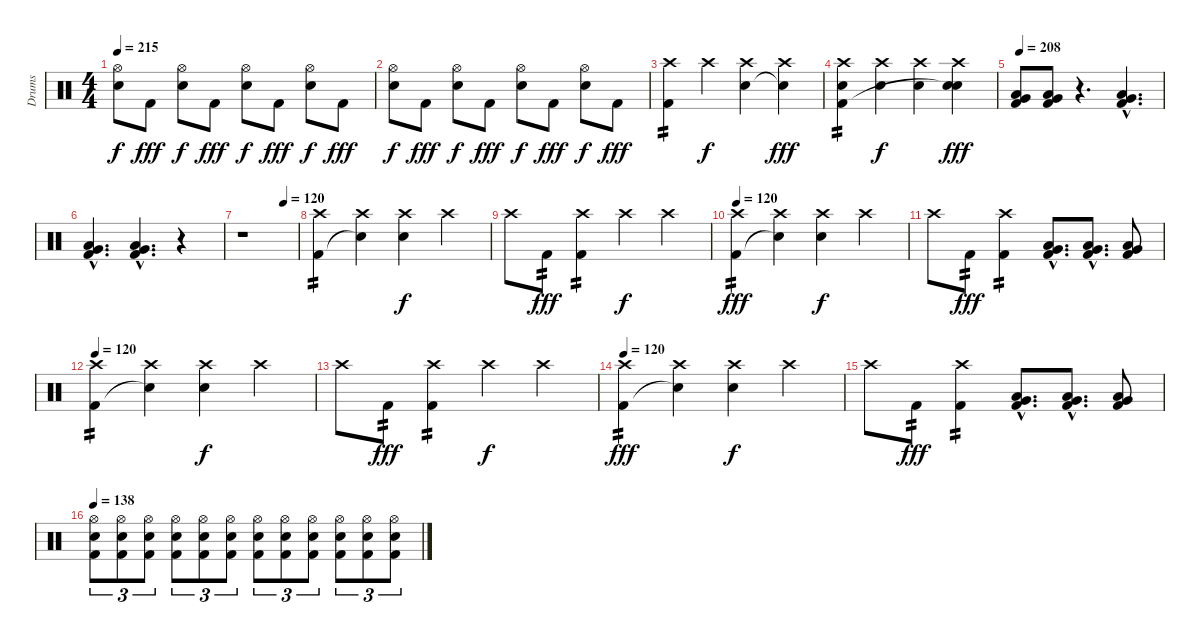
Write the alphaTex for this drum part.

\track ("Drums" "Drums") {instrument percussion}
\staff {score}
\articulation defaults
\ts (4 4)
\tempo 215
\clef neutral
\ks c
("Hi-Hat (open)" "Electric Snare (hit)").8{dy f} "Kick (hit) 2".8{dy fff} ("Hi-Hat (open)" "Electric Snare (hit)").8{dy f} "Kick (hit) 2".8{dy fff} ("Hi-Hat (open)" "Electric Snare (hit)").8{dy f} "Kick (hit) 2".8{dy fff} ("Hi-Hat (open)" "Electric Snare (hit)").8{dy f} "Kick (hit) 2".8{dy fff} |
("Hi-Hat (open)" "Electric Snare (hit)").8{dy f} "Kick (hit) 2".8{dy fff} ("Hi-Hat (open)" "Electric Snare (hit)").8{dy f} "Kick (hit) 2".8{dy fff} ("Hi-Hat (open)" "Electric Snare (hit)").8{dy f} "Kick (hit) 2".8{dy fff} ("Hi-Hat (open)" "Electric Snare (hit)").8{dy f} "Kick (hit) 2".8{dy fff} |
("Crash high (hit)" "Kick (hit) 2").4{tp 2} "Crash high (hit)".4{dy f} ("Crash high (hit)" "Electric Snare (hit)").4 ("Crash high (hit)" "Snare (hit)"{t}).4{dy fff} |
("Crash high (hit)" "Electric Snare (hit)" "Kick (hit) 2").4{tp 2} ("Crash high (hit)" "Electric Snare (hit)").4{dy f} ("Crash high (hit)" "Electric Snare (hit)").4 ("Crash high (hit)" "Electric Snare (hit)" "Snare (hit)"{t}).4{dy fff} |
\tempo 208
("Low Tom (hit)" "Very Low Tom (hit)" "Kick (hit) 2").8 ("Low Tom (hit)" "Very Low Tom (hit)" "Kick (hit) 2").8 r.4{d} ("Low Tom (hit)"{hac} "Very Low Tom (hit)"{hac} "Kick (hit) 2"{hac}).4{d} |
("Low Tom (hit)"{hac} "Very Low Tom (hit)"{hac} "Kick (hit) 2"{hac}).4{d} ("Low Tom (hit)"{hac} "Very Low Tom (hit)"{hac} "Kick (hit) 2"{hac}).4{d} r.4 |
\tempo (120 0.75)
r.1 |
("Crash high (hit)" "Kick (hit) 2").4{tp 2} ("Crash high (hit)" "Snare (hit)"{t}).4 ("Crash high (hit)" "Electric Snare (hit)").4{dy f} "Crash high (hit)".4 |
"Crash high (hit)".8 "Kick (hit) 2".8{tp 2 dy fff} ("Crash high (hit)" "Kick (hit) 2").4{tp 2} "Crash high (hit)".4{dy f} "Crash high (hit)".4 |
\tempo 120
("Crash high (hit)" "Kick (hit) 2").4{tp 2 dy fff} ("Crash high (hit)" "Snare (hit)"{t}).4 ("Crash high (hit)" "Electric Snare (hit)").4{dy f} "Crash high (hit)".4 |
"Crash high (hit)".8 "Kick (hit) 2".8{tp 2 dy fff} ("Crash high (hit)" "Kick (hit) 2").4{tp 2} ("Low Tom (hit)"{hac} "Very Low Tom (hit)"{hac} "Kick (hit) 2"{hac}).8{d} ("Low Tom (hit)"{hac} "Very Low Tom (hit)"{hac} "Kick (hit) 2"{hac}).8{d} ("Low Tom (hit)" "Very Low Tom (hit)" "Kick (hit) 2").8 |
\tempo 120
("Crash high (hit)" "Kick (hit) 2").4{tp 2} ("Crash high (hit)" "Snare (hit)"{t}).4 ("Crash high (hit)" "Electric Snare (hit)").4{dy f} "Crash high (hit)".4 |
"Crash high (hit)".8 "Kick (hit) 2".8{tp 2 dy fff} ("Crash high (hit)" "Kick (hit) 2").4{tp 2} "Crash high (hit)".4{dy f} "Crash high (hit)".4 |
\tempo 120
("Crash high (hit)" "Kick (hit) 2").4{tp 2 dy fff} ("Crash high (hit)" "Snare (hit)"{t}).4 ("Crash high (hit)" "Electric Snare (hit)").4{dy f} "Crash high (hit)".4 |
"Crash high (hit)".8 "Kick (hit) 2".8{tp 2 dy fff} ("Crash high (hit)" "Kick (hit) 2").4{tp 2} ("Low Tom (hit)"{hac} "Very Low Tom (hit)"{hac} "Kick (hit) 2"{hac}).8{d} ("Low Tom (hit)"{hac} "Very Low Tom (hit)"{hac} "Kick (hit) 2"{hac}).8{d} ("Low Tom (hit)" "Very Low Tom (hit)" "Kick (hit) 2").8 |
\tempo 138
("Hi-Hat (open)" "Electric Snare (hit)" "Kick (hit) 2").8{tu (3 2)} ("Hi-Hat (open)" "Electric Snare (hit)" "Kick (hit) 2").8{tu (3 2)} ("Hi-Hat (open)" "Electric Snare (hit)" "Kick (hit) 2").8{tu (3 2)} ("Hi-Hat (open)" "Electric Snare (hit)" "Kick (hit) 2").8{tu (3 2)} ("Hi-Hat (open)" "Electric Snare (hit)" "Kick (hit) 2").8{tu (3 2)} ("Hi-Hat (open)" "Electric Snare (hit)" "Kick (hit) 2").8{tu (3 2)} ("Hi-Hat (open)" "Electric Snare (hit)" "Kick (hit) 2").8{tu (3 2)} ("Hi-Hat (open)" "Electric Snare (hit)" "Kick (hit) 2").8{tu (3 2)} ("Hi-Hat (open)" "Electric Snare (hit)" "Kick (hit) 2").8{tu (3 2)} ("Hi-Hat (open)" "Electric Snare (hit)" "Kick (hit) 2").8{tu (3 2)} ("Hi-Hat (open)" "Electric Snare (hit)" "Kick (hit) 2").8{tu (3 2)} ("Hi-Hat (open)" "Electric Snare (hit)" "Kick (hit) 2").8{tu (3 2)}
